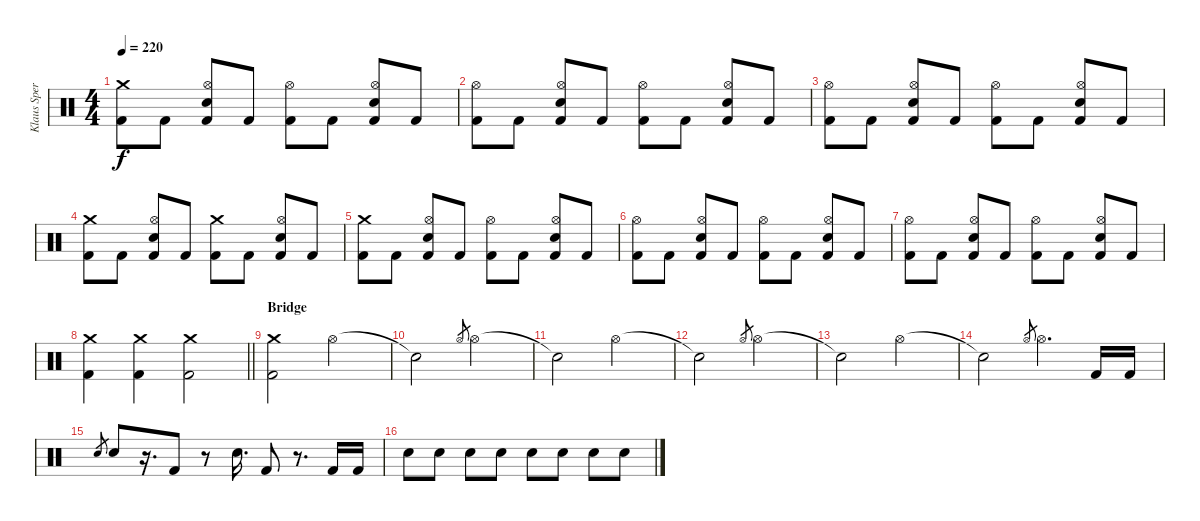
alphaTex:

\track ("Klaus Sperling" "Klaus Sper") {instrument percussion}
\staff {score}
\articulation defaults
\ts (4 4)
\tempo 220
\clef neutral
\ks c
("Crash medium (hit)" "Kick (hit) 2").8{dy f} "Kick (hit) 2".8 ("Hi-Hat (open)" "Electric Snare (hit)" "Kick (hit) 2").8 "Kick (hit) 2".8 ("Hi-Hat (open)" "Kick (hit) 2").8 "Kick (hit) 2".8 ("Hi-Hat (open)" "Electric Snare (hit)" "Kick (hit) 2").8 "Kick (hit) 2".8 |
("Hi-Hat (open)" "Kick (hit) 2").8 "Kick (hit) 2".8 ("Hi-Hat (open)" "Electric Snare (hit)" "Kick (hit) 2").8 "Kick (hit) 2".8 ("Hi-Hat (open)" "Kick (hit) 2").8 "Kick (hit) 2".8 ("Hi-Hat (open)" "Electric Snare (hit)" "Kick (hit) 2").8 "Kick (hit) 2".8 |
("Hi-Hat (open)" "Kick (hit) 2").8 "Kick (hit) 2".8 ("Hi-Hat (open)" "Electric Snare (hit)" "Kick (hit) 2").8 "Kick (hit) 2".8 ("Hi-Hat (open)" "Kick (hit) 2").8 "Kick (hit) 2".8 ("Hi-Hat (open)" "Electric Snare (hit)" "Kick (hit) 2").8 "Kick (hit) 2".8 |
("Crash medium (hit)" "Kick (hit) 2").8 "Kick (hit) 2".8 ("Hi-Hat (open)" "Electric Snare (hit)" "Kick (hit) 2").8 "Kick (hit) 2".8 ("Crash medium (hit)" "Kick (hit) 2").8 "Kick (hit) 2".8 ("Hi-Hat (open)" "Electric Snare (hit)" "Kick (hit) 2").8 "Kick (hit) 2".8 |
("Crash medium (hit)" "Kick (hit) 2").8 "Kick (hit) 2".8 ("Hi-Hat (open)" "Electric Snare (hit)" "Kick (hit) 2").8 "Kick (hit) 2".8 ("Hi-Hat (open)" "Kick (hit) 2").8 "Kick (hit) 2".8 ("Hi-Hat (open)" "Electric Snare (hit)" "Kick (hit) 2").8 "Kick (hit) 2".8 |
("Hi-Hat (open)" "Kick (hit) 2").8 "Kick (hit) 2".8 ("Hi-Hat (open)" "Electric Snare (hit)" "Kick (hit) 2").8 "Kick (hit) 2".8 ("Hi-Hat (open)" "Kick (hit) 2").8 "Kick (hit) 2".8 ("Hi-Hat (open)" "Electric Snare (hit)" "Kick (hit) 2").8 "Kick (hit) 2".8 |
("Hi-Hat (open)" "Kick (hit) 2").8 "Kick (hit) 2".8 ("Hi-Hat (open)" "Electric Snare (hit)" "Kick (hit) 2").8 "Kick (hit) 2".8 ("Hi-Hat (open)" "Kick (hit) 2").8 "Kick (hit) 2".8 ("Hi-Hat (open)" "Electric Snare (hit)" "Kick (hit) 2").8 "Kick (hit) 2".8 |
\barLineRight lightlight
("Crash medium (hit)" "Kick (hit) 2").4 ("Crash medium (hit)" "Kick (hit) 2").4 ("Crash medium (hit)" "Kick (hit) 2").2 |
\section ("" "Bridge")
("Crash medium (hit)" "Kick (hit) 2").2 "Hi-Hat (open)".2 |
"Snare (hit)"{t}.2 "Hi-Hat (open)".8{gr} "Hi-Hat (open)".2 |
"Snare (hit)"{t}.2 "Hi-Hat (open)".2 |
"Snare (hit)"{t}.2 "Hi-Hat (open)".8{gr} "Hi-Hat (open)".2 |
"Snare (hit)"{t}.2 "Hi-Hat (open)".2 |
"Snare (hit)"{t}.2 "Hi-Hat (open)".8{gr} "Hi-Hat (open)".4{d} "Kick (hit) 2".16 "Kick (hit) 2".16 |
"Electric Snare (hit)".8{gr} "Electric Snare (hit)".8 r.16{d} "Kick (hit) 2".8 r.8 "Electric Snare (hit)".16{d} "Kick (hit) 2".8 r.8{d} "Kick (hit) 2".16 "Kick (hit) 2".16 |
"Electric Snare (hit)".8 "Electric Snare (hit)".8 "Electric Snare (hit)".8 "Electric Snare (hit)".8 "Electric Snare (hit)".8 "Electric Snare (hit)".8 "Electric Snare (hit)".8 "Electric Snare (hit)".8
